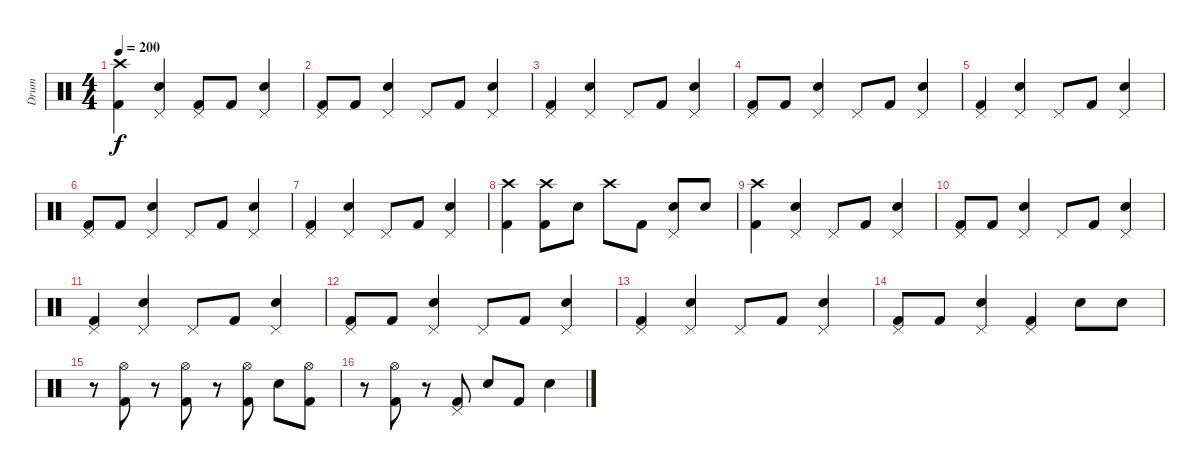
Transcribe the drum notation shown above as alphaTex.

\track ("Drum" "Drum") {instrument percussion}
\staff {score}
\articulation defaults
\ts (4 4)
\tempo 200
\clef neutral
\ks c
("Crash high (hit)" "Kick (hit) 2").4{dy f} ("Pedal Hi-Hat (hit)" "Electric Snare (hit)").4 ("Pedal Hi-Hat (hit)" "Kick (hit) 2").8 "Kick (hit) 2".8 ("Pedal Hi-Hat (hit)" "Electric Snare (hit)").4 |
("Pedal Hi-Hat (hit)" "Kick (hit) 2").8 "Kick (hit) 2".8 ("Pedal Hi-Hat (hit)" "Electric Snare (hit)").4 "Pedal Hi-Hat (hit)".8 "Kick (hit) 2".8 ("Pedal Hi-Hat (hit)" "Electric Snare (hit)").4 |
("Pedal Hi-Hat (hit)" "Kick (hit) 2").4 ("Pedal Hi-Hat (hit)" "Electric Snare (hit)").4 "Pedal Hi-Hat (hit)".8 "Kick (hit) 2".8 ("Pedal Hi-Hat (hit)" "Electric Snare (hit)").4 |
("Pedal Hi-Hat (hit)" "Kick (hit) 2").8 "Kick (hit) 2".8 ("Pedal Hi-Hat (hit)" "Electric Snare (hit)").4 "Pedal Hi-Hat (hit)".8 "Kick (hit) 2".8 ("Pedal Hi-Hat (hit)" "Electric Snare (hit)").4 |
("Pedal Hi-Hat (hit)" "Kick (hit) 2").4 ("Pedal Hi-Hat (hit)" "Electric Snare (hit)").4 "Pedal Hi-Hat (hit)".8 "Kick (hit) 2".8 ("Pedal Hi-Hat (hit)" "Electric Snare (hit)").4 |
("Pedal Hi-Hat (hit)" "Kick (hit) 2").8 "Kick (hit) 2".8 ("Pedal Hi-Hat (hit)" "Electric Snare (hit)").4 "Pedal Hi-Hat (hit)".8 "Kick (hit) 2".8 ("Pedal Hi-Hat (hit)" "Electric Snare (hit)").4 |
("Pedal Hi-Hat (hit)" "Kick (hit) 2").4 ("Pedal Hi-Hat (hit)" "Electric Snare (hit)").4 "Pedal Hi-Hat (hit)".8 "Kick (hit) 2".8 ("Pedal Hi-Hat (hit)" "Electric Snare (hit)").4 |
("Crash high (hit)" "Kick (hit) 2").4 ("Crash high (hit)" "Kick (hit) 2").8 "Electric Snare (hit)".8 "Crash high (hit)".8 "Kick (hit) 2".8 ("Pedal Hi-Hat (hit)" "Electric Snare (hit)").8 "Electric Snare (hit)".8 |
("Crash high (hit)" "Kick (hit) 2").4 ("Pedal Hi-Hat (hit)" "Electric Snare (hit)").4 "Pedal Hi-Hat (hit)".8 "Kick (hit) 2".8 ("Pedal Hi-Hat (hit)" "Electric Snare (hit)").4 |
("Pedal Hi-Hat (hit)" "Kick (hit) 2").8 "Kick (hit) 2".8 ("Pedal Hi-Hat (hit)" "Electric Snare (hit)").4 "Pedal Hi-Hat (hit)".8 "Kick (hit) 2".8 ("Pedal Hi-Hat (hit)" "Electric Snare (hit)").4 |
("Pedal Hi-Hat (hit)" "Kick (hit) 2").4 ("Pedal Hi-Hat (hit)" "Electric Snare (hit)").4 "Pedal Hi-Hat (hit)".8 "Kick (hit) 2".8 ("Pedal Hi-Hat (hit)" "Electric Snare (hit)").4 |
("Pedal Hi-Hat (hit)" "Kick (hit) 2").8 "Kick (hit) 2".8 ("Pedal Hi-Hat (hit)" "Electric Snare (hit)").4 "Pedal Hi-Hat (hit)".8 "Kick (hit) 2".8 ("Pedal Hi-Hat (hit)" "Electric Snare (hit)").4 |
("Pedal Hi-Hat (hit)" "Kick (hit) 2").4 ("Pedal Hi-Hat (hit)" "Electric Snare (hit)").4 "Pedal Hi-Hat (hit)".8 "Kick (hit) 2".8 ("Pedal Hi-Hat (hit)" "Electric Snare (hit)").4 |
("Pedal Hi-Hat (hit)" "Kick (hit) 2").8 "Kick (hit) 2".8 ("Pedal Hi-Hat (hit)" "Electric Snare (hit)").4 ("Pedal Hi-Hat (hit)" "Kick (hit) 2").4 "Electric Snare (hit)".8 "Electric Snare (hit)".8 |
r.8 ("Hi-Hat (open)" "Kick (hit) 2").8 r.8 ("Hi-Hat (open)" "Kick (hit) 2").8 r.8 ("Hi-Hat (open)" "Kick (hit) 2").8 "Electric Snare (hit)".8 ("Hi-Hat (open)" "Kick (hit) 2").8 |
r.8 ("Hi-Hat (open)" "Kick (hit) 2").8 r.8 ("Pedal Hi-Hat (hit)" "Kick (hit) 2").8 "Electric Snare (hit)".8 "Kick (hit) 2".8 "Electric Snare (hit)".4
